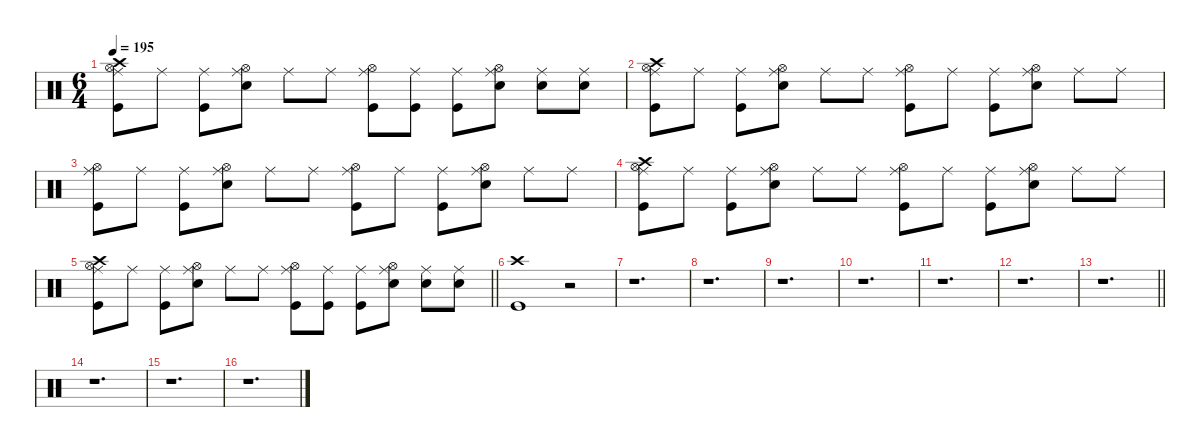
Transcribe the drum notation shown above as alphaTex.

\defaultSystemsLayout 4
\hideDynamics
\bracketExtendMode nobrackets
\singleTrackTrackNamePolicy hidden
\multiTrackTrackNamePolicy hidden
\firstSystemTrackNameMode fullname
\firstSystemTrackNameOrientation horizontal
\otherSystemsTrackNameOrientation horizontal
\track ("Percussion" "drm.") {defaultSystemsLayout 4 instrument percussion}
\staff {score}
\articulation defaults
\ts (6 4)
\tempo 195
\clef neutral
\ks c
("Crash high (hit)" "Ride (middle)" "Hi-Hat (open)" "Kick (hit)").8{dy f beam Down} "Ride (middle)".8{beam Down} ("Ride (middle)" "Kick (hit)").8{beam Down} ("Ride (middle)" "Snare (hit) 2" "Hi-Hat (open)").8{beam Down} "Ride (middle)".8{beam Down} "Ride (middle)".8{beam Down} ("Ride (middle)" "Hi-Hat (open)" "Kick (hit)").8{beam Down} ("Ride (middle)" "Kick (hit)").8{beam Down} ("Ride (middle)" "Kick (hit)").8{beam Down} ("Ride (middle)" "Snare (hit) 2" "Hi-Hat (open)").8{beam Down} ("Ride (middle)" "Snare (hit) 2").8{beam Down} ("Ride (middle)" "Snare (hit) 2").8{beam Down} |
("Crash high (hit)" "Ride (middle)" "Hi-Hat (open)" "Kick (hit)").8{beam Down} "Ride (middle)".8{beam Down} ("Ride (middle)" "Kick (hit)").8{beam Down} ("Ride (middle)" "Snare (hit) 2" "Hi-Hat (open)").8{beam Down} "Ride (middle)".8{beam Down} "Ride (middle)".8{beam Down} ("Ride (middle)" "Hi-Hat (open)" "Kick (hit)").8{beam Down} "Ride (middle)".8{beam Down} ("Ride (middle)" "Kick (hit)").8{beam Down} ("Ride (middle)" "Snare (hit) 2" "Hi-Hat (open)").8{beam Down} "Ride (middle)".8{beam Down} "Ride (middle)".8{beam Down} |
("Ride (middle)" "Hi-Hat (open)" "Kick (hit)").8{beam Down} "Ride (middle)".8{beam Down} ("Ride (middle)" "Kick (hit)").8{beam Down} ("Ride (middle)" "Snare (hit) 2" "Hi-Hat (open)").8{beam Down} "Ride (middle)".8{beam Down} "Ride (middle)".8{beam Down} ("Ride (middle)" "Hi-Hat (open)" "Kick (hit)").8{beam Down} "Ride (middle)".8{beam Down} ("Ride (middle)" "Kick (hit)").8{beam Down} ("Ride (middle)" "Snare (hit) 2" "Hi-Hat (open)").8{beam Down} "Ride (middle)".8{beam Down} "Ride (middle)".8{beam Down} |
("Crash high (hit)" "Ride (middle)" "Hi-Hat (open)" "Kick (hit)").8{beam Down} "Ride (middle)".8{beam Down} ("Ride (middle)" "Kick (hit)").8{beam Down} ("Ride (middle)" "Snare (hit) 2" "Hi-Hat (open)").8{beam Down} "Ride (middle)".8{beam Down} "Ride (middle)".8{beam Down} ("Ride (middle)" "Hi-Hat (open)" "Kick (hit)").8{beam Down} "Ride (middle)".8{beam Down} ("Ride (middle)" "Kick (hit)").8{beam Down} ("Ride (middle)" "Snare (hit) 2" "Hi-Hat (open)").8{beam Down} "Ride (middle)".8{beam Down} "Ride (middle)".8{beam Down} |
\barLineRight lightlight
("Crash high (hit)" "Ride (middle)" "Hi-Hat (open)" "Kick (hit)").8{beam Down} "Ride (middle)".8{beam Down} ("Ride (middle)" "Kick (hit)").8{beam Down} ("Ride (middle)" "Snare (hit) 2" "Hi-Hat (open)").8{beam Down} "Ride (middle)".8{beam Down} "Ride (middle)".8{beam Down} ("Ride (middle)" "Hi-Hat (open)" "Kick (hit)").8{beam Down} ("Ride (middle)" "Kick (hit)").8{beam Down} ("Ride (middle)" "Kick (hit)").8{beam Down} ("Ride (middle)" "Snare (hit) 2" "Hi-Hat (open)").8{beam Down} ("Ride (middle)" "Snare (hit) 2").8{beam Down} ("Ride (middle)" "Snare (hit) 2").8{beam Down} |
("Crash high (hit)" "Kick (hit)").1{beam Down} r.2{beam Down} |
r.1{d beam Down} |
r.1{d beam Down} |
r.1{d beam Down} |
r.1{d beam Down} |
r.1{d beam Down} |
r.1{d beam Down} |
\barLineRight lightlight
r.1{d beam Down} |
r.1{d beam Down} |
r.1{d beam Down} |
r.1{d beam Down}
